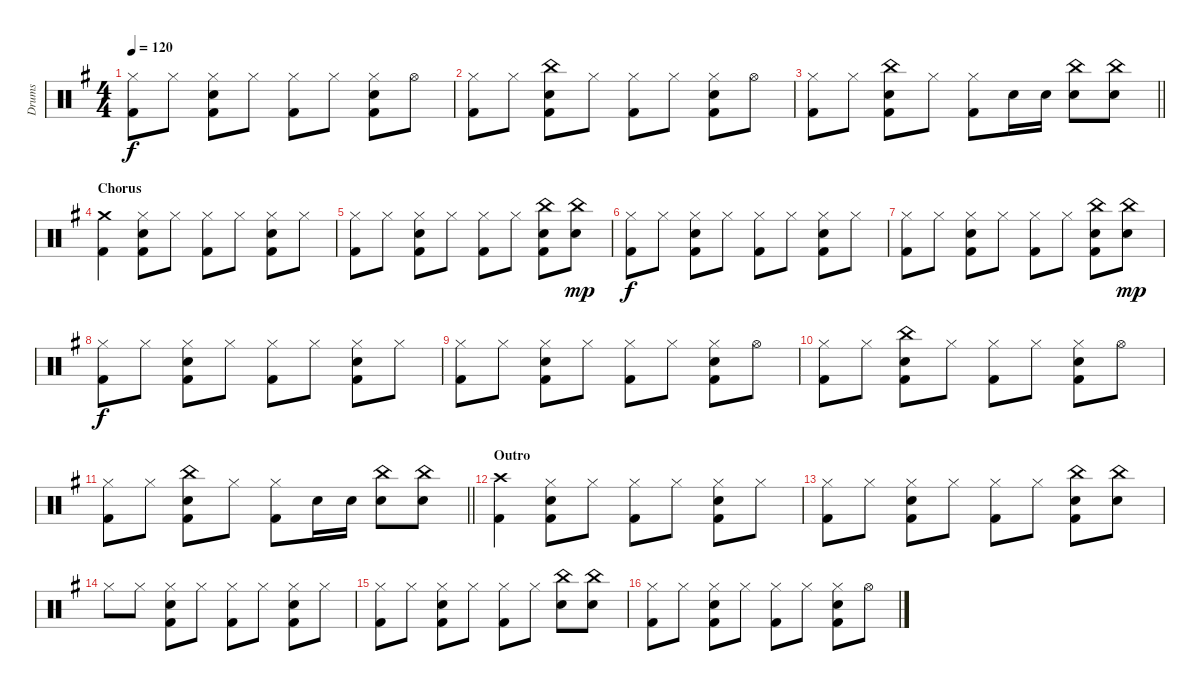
\track ("Drums" "Drums") {instrument percussion}
\staff {score}
\articulation defaults
\ts (4 4)
\tempo 120
\clef neutral
\ks g
("Hi-Hat (closed)" "Kick (hit) 2").8{dy f} "Hi-Hat (closed)".8 ("Hi-Hat (closed)" "Electric Snare (hit)" "Kick (hit) 2").8 "Hi-Hat (closed)".8 ("Hi-Hat (closed)" "Kick (hit) 2").8 "Hi-Hat (closed)".8 ("Hi-Hat (closed)" "Electric Snare (hit)" "Kick (hit) 2").8 "Hi-Hat (open)".8 |
("Hi-Hat (closed)" "Kick (hit) 2").8 "Hi-Hat (closed)".8 ("China (hit)" "Electric Snare (hit)" "Kick (hit) 2").8 "Hi-Hat (closed)".8 ("Hi-Hat (closed)" "Kick (hit) 2").8 "Hi-Hat (closed)".8 ("Hi-Hat (closed)" "Electric Snare (hit)" "Kick (hit) 2").8 "Hi-Hat (open)".8 |
\barLineRight lightlight
("Hi-Hat (closed)" "Kick (hit) 2").8 "Hi-Hat (closed)".8 ("China (hit)" "Electric Snare (hit)" "Kick (hit) 2").8 "Hi-Hat (closed)".8 ("Hi-Hat (closed)" "Kick (hit) 2").8 "Electric Snare (hit)".16 "Electric Snare (hit)".16 ("China (hit)" "Electric Snare (hit)").8 ("China (hit)" "Electric Snare (hit)").8 |
\section ("" "Chorus")
("Crash medium (hit)" "Kick (hit) 2").4 ("Hi-Hat (closed)" "Electric Snare (hit)" "Kick (hit) 2").8 "Hi-Hat (closed)".8 ("Hi-Hat (closed)" "Kick (hit) 2").8 "Hi-Hat (closed)".8 ("Hi-Hat (closed)" "Electric Snare (hit)" "Kick (hit) 2").8 "Hi-Hat (closed)".8 |
("Hi-Hat (closed)" "Kick (hit) 2").8 "Hi-Hat (closed)".8 ("Hi-Hat (closed)" "Electric Snare (hit)" "Kick (hit) 2").8 "Hi-Hat (closed)".8 ("Hi-Hat (closed)" "Kick (hit) 2").8 "Hi-Hat (closed)".8 ("China (hit)" "Electric Snare (hit)" "Kick (hit) 2").8 ("China (hit)" "Electric Snare (hit)").8{dy mp} |
("Hi-Hat (closed)" "Kick (hit) 2").8{dy f} "Hi-Hat (closed)".8 ("Hi-Hat (closed)" "Electric Snare (hit)" "Kick (hit) 2").8 "Hi-Hat (closed)".8 ("Hi-Hat (closed)" "Kick (hit) 2").8 "Hi-Hat (closed)".8 ("Hi-Hat (closed)" "Electric Snare (hit)" "Kick (hit) 2").8 "Hi-Hat (closed)".8 |
("Hi-Hat (closed)" "Kick (hit) 2").8 "Hi-Hat (closed)".8 ("Hi-Hat (closed)" "Electric Snare (hit)" "Kick (hit) 2").8 "Hi-Hat (closed)".8 ("Hi-Hat (closed)" "Kick (hit) 2").8 "Hi-Hat (closed)".8 ("China (hit)" "Electric Snare (hit)" "Kick (hit) 2").8 ("China (hit)" "Electric Snare (hit)").8{dy mp} |
("Hi-Hat (closed)" "Kick (hit) 2").8{dy f} "Hi-Hat (closed)".8 ("Hi-Hat (closed)" "Electric Snare (hit)" "Kick (hit) 2").8 "Hi-Hat (closed)".8 ("Hi-Hat (closed)" "Kick (hit) 2").8 "Hi-Hat (closed)".8 ("Hi-Hat (closed)" "Electric Snare (hit)" "Kick (hit) 2").8 "Hi-Hat (closed)".8 |
("Hi-Hat (closed)" "Kick (hit) 2").8 "Hi-Hat (closed)".8 ("Hi-Hat (closed)" "Electric Snare (hit)" "Kick (hit) 2").8 "Hi-Hat (closed)".8 ("Hi-Hat (closed)" "Kick (hit) 2").8 "Hi-Hat (closed)".8 ("Hi-Hat (closed)" "Electric Snare (hit)" "Kick (hit) 2").8 "Hi-Hat (open)".8 |
("Hi-Hat (closed)" "Kick (hit) 2").8 "Hi-Hat (closed)".8 ("China (hit)" "Electric Snare (hit)" "Kick (hit) 2").8 "Hi-Hat (closed)".8 ("Hi-Hat (closed)" "Kick (hit) 2").8 "Hi-Hat (closed)".8 ("Hi-Hat (closed)" "Electric Snare (hit)" "Kick (hit) 2").8 "Hi-Hat (open)".8 |
\barLineRight lightlight
("Hi-Hat (closed)" "Kick (hit) 2").8 "Hi-Hat (closed)".8 ("China (hit)" "Electric Snare (hit)" "Kick (hit) 2").8 "Hi-Hat (closed)".8 ("Hi-Hat (closed)" "Kick (hit) 2").8 "Electric Snare (hit)".16 "Electric Snare (hit)".16 ("China (hit)" "Electric Snare (hit)").8 ("China (hit)" "Electric Snare (hit)").8 |
\section ("" "Outro")
("Crash high (hit)" "Kick (hit) 2").4 ("Hi-Hat (closed)" "Electric Snare (hit)" "Kick (hit) 2").8 "Hi-Hat (closed)".8 ("Hi-Hat (closed)" "Kick (hit) 2").8 "Hi-Hat (closed)".8 ("Hi-Hat (closed)" "Electric Snare (hit)" "Kick (hit) 2").8 "Hi-Hat (closed)".8 |
("Hi-Hat (closed)" "Kick (hit) 2").8 "Hi-Hat (closed)".8 ("Hi-Hat (closed)" "Electric Snare (hit)" "Kick (hit) 2").8 "Hi-Hat (closed)".8 ("Hi-Hat (closed)" "Kick (hit) 2").8 "Hi-Hat (closed)".8 ("China (hit)" "Electric Snare (hit)" "Kick (hit) 2").8 ("China (hit)" "Electric Snare (hit)").8 |
"Hi-Hat (closed)".8 "Hi-Hat (closed)".8 ("Hi-Hat (closed)" "Electric Snare (hit)" "Kick (hit) 2").8 "Hi-Hat (closed)".8 ("Hi-Hat (closed)" "Kick (hit) 2").8 "Hi-Hat (closed)".8 ("Hi-Hat (closed)" "Electric Snare (hit)" "Kick (hit) 2").8 "Hi-Hat (closed)".8 |
("Hi-Hat (closed)" "Kick (hit) 2").8 "Hi-Hat (closed)".8 ("Hi-Hat (closed)" "Electric Snare (hit)" "Kick (hit) 2").8 "Hi-Hat (closed)".8 ("Hi-Hat (closed)" "Kick (hit) 2").8 "Hi-Hat (closed)".8 ("China (hit)" "Electric Snare (hit)").8 ("China (hit)" "Electric Snare (hit)").8 |
("Hi-Hat (closed)" "Kick (hit) 2").8 "Hi-Hat (closed)".8 ("Hi-Hat (closed)" "Electric Snare (hit)" "Kick (hit) 2").8 "Hi-Hat (closed)".8 ("Hi-Hat (closed)" "Kick (hit) 2").8 "Hi-Hat (closed)".8 ("Hi-Hat (closed)" "Electric Snare (hit)" "Kick (hit) 2").8 "Hi-Hat (open)".8
